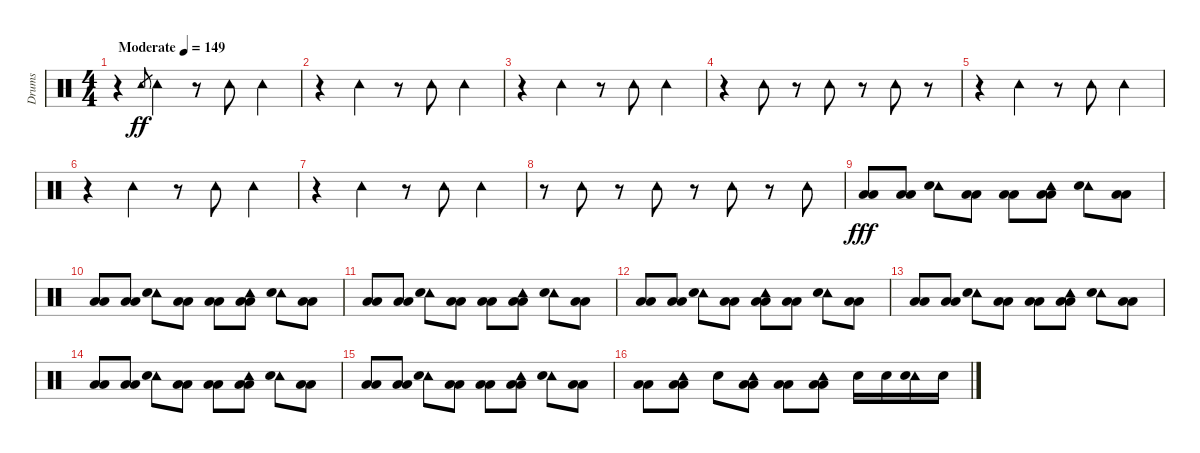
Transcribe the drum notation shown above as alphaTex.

\track ("Drums" "Drums") {instrument percussion}
\staff {score}
\articulation defaults
\ts (4 4)
\tempo (149 "Moderate")
\clef neutral
\ks c
r.4{dy ff} "Tambourine (hit)".8{gr} "Tambourine (hit)".4 r.8 "Tambourine (hit)".8 "Tambourine (hit)".4 |
r.4 "Tambourine (hit)".4 r.8 "Tambourine (hit)".8 "Tambourine (hit)".4 |
r.4 "Tambourine (hit)".4 r.8 "Tambourine (hit)".8 "Tambourine (hit)".4 |
r.4 "Tambourine (hit)".8 r.8 "Tambourine (hit)".8 r.8 "Tambourine (hit)".8 r.8 |
r.4 "Tambourine (hit)".4 r.8 "Tambourine (hit)".8 "Tambourine (hit)".4 |
r.4 "Tambourine (hit)".4 r.8 "Tambourine (hit)".8 "Tambourine (hit)".4 |
r.4 "Tambourine (hit)".4 r.8 "Tambourine (hit)".8 "Tambourine (hit)".4 |
r.8 "Tambourine (hit)".8 r.8 "Tambourine (hit)".8 r.8 "Tambourine (hit)".8 r.8 "Tambourine (hit)".8 |
("Low Floor Tom (hit)" "Low Floor Tom (hit)").8{dy fff} ("Low Floor Tom (hit)" "Low Floor Tom (hit)").8 ("Tambourine (hit)" "Snare (hit) 2").8 ("Low Floor Tom (hit)" "Low Floor Tom (hit)").8 ("Low Floor Tom (hit)" "Low Floor Tom (hit)").8 ("Tambourine (hit)" "Low Floor Tom (hit)" "Low Floor Tom (hit)").8 ("Tambourine (hit)" "Snare (hit) 2").8 ("Low Floor Tom (hit)" "Low Floor Tom (hit)").8 |
("Low Floor Tom (hit)" "Low Floor Tom (hit)").8 ("Low Floor Tom (hit)" "Low Floor Tom (hit)").8 ("Tambourine (hit)" "Snare (hit) 2").8 ("Low Floor Tom (hit)" "Low Floor Tom (hit)").8 ("Low Floor Tom (hit)" "Low Floor Tom (hit)").8 ("Tambourine (hit)" "Low Floor Tom (hit)" "Low Floor Tom (hit)").8 ("Tambourine (hit)" "Snare (hit) 2").8 ("Low Floor Tom (hit)" "Low Floor Tom (hit)").8 |
("Low Floor Tom (hit)" "Low Floor Tom (hit)").8 ("Low Floor Tom (hit)" "Low Floor Tom (hit)").8 ("Tambourine (hit)" "Snare (hit) 2").8 ("Low Floor Tom (hit)" "Low Floor Tom (hit)").8 ("Low Floor Tom (hit)" "Low Floor Tom (hit)").8 ("Tambourine (hit)" "Low Floor Tom (hit)" "Low Floor Tom (hit)").8 ("Tambourine (hit)" "Snare (hit) 2").8 ("Low Floor Tom (hit)" "Low Floor Tom (hit)").8 |
("Low Floor Tom (hit)" "Low Floor Tom (hit)").8 ("Low Floor Tom (hit)" "Low Floor Tom (hit)").8 ("Tambourine (hit)" "Snare (hit) 2").8 ("Low Floor Tom (hit)" "Low Floor Tom (hit)").8 ("Tambourine (hit)" "Low Floor Tom (hit)" "Low Floor Tom (hit)").8 ("Low Floor Tom (hit)" "Low Floor Tom (hit)").8 ("Tambourine (hit)" "Snare (hit) 2").8 ("Low Floor Tom (hit)" "Low Floor Tom (hit)").8 |
("Low Floor Tom (hit)" "Low Floor Tom (hit)").8 ("Low Floor Tom (hit)" "Low Floor Tom (hit)").8 ("Tambourine (hit)" "Snare (hit) 2").8 ("Low Floor Tom (hit)" "Low Floor Tom (hit)").8 ("Low Floor Tom (hit)" "Low Floor Tom (hit)").8 ("Tambourine (hit)" "Low Floor Tom (hit)" "Low Floor Tom (hit)").8 ("Tambourine (hit)" "Snare (hit) 2").8 ("Low Floor Tom (hit)" "Low Floor Tom (hit)").8 |
("Low Floor Tom (hit)" "Low Floor Tom (hit)").8 ("Low Floor Tom (hit)" "Low Floor Tom (hit)").8 ("Tambourine (hit)" "Snare (hit) 2").8 ("Low Floor Tom (hit)" "Low Floor Tom (hit)").8 ("Low Floor Tom (hit)" "Low Floor Tom (hit)").8 ("Tambourine (hit)" "Low Floor Tom (hit)" "Low Floor Tom (hit)").8 ("Tambourine (hit)" "Snare (hit) 2").8 ("Low Floor Tom (hit)" "Low Floor Tom (hit)").8 |
("Low Floor Tom (hit)" "Low Floor Tom (hit)").8 ("Low Floor Tom (hit)" "Low Floor Tom (hit)").8 ("Tambourine (hit)" "Snare (hit) 2").8 ("Low Floor Tom (hit)" "Low Floor Tom (hit)").8 ("Low Floor Tom (hit)" "Low Floor Tom (hit)").8 ("Tambourine (hit)" "Low Floor Tom (hit)" "Low Floor Tom (hit)").8 ("Tambourine (hit)" "Snare (hit) 2").8 ("Low Floor Tom (hit)" "Low Floor Tom (hit)").8 |
("Low Floor Tom (hit)" "Low Floor Tom (hit)").8 ("Tambourine (hit)" "Low Floor Tom (hit)" "Low Floor Tom (hit)").8 "Snare (hit) 2".8 ("Tambourine (hit)" "Low Floor Tom (hit)" "Low Floor Tom (hit)").8 ("Low Floor Tom (hit)" "Low Floor Tom (hit)").8 ("Tambourine (hit)" "Low Floor Tom (hit)" "Low Floor Tom (hit)").8 "Snare (hit) 2".16 "Snare (hit) 2".16 ("Tambourine (hit)" "Snare (hit) 2").16 "Snare (hit) 2".16
